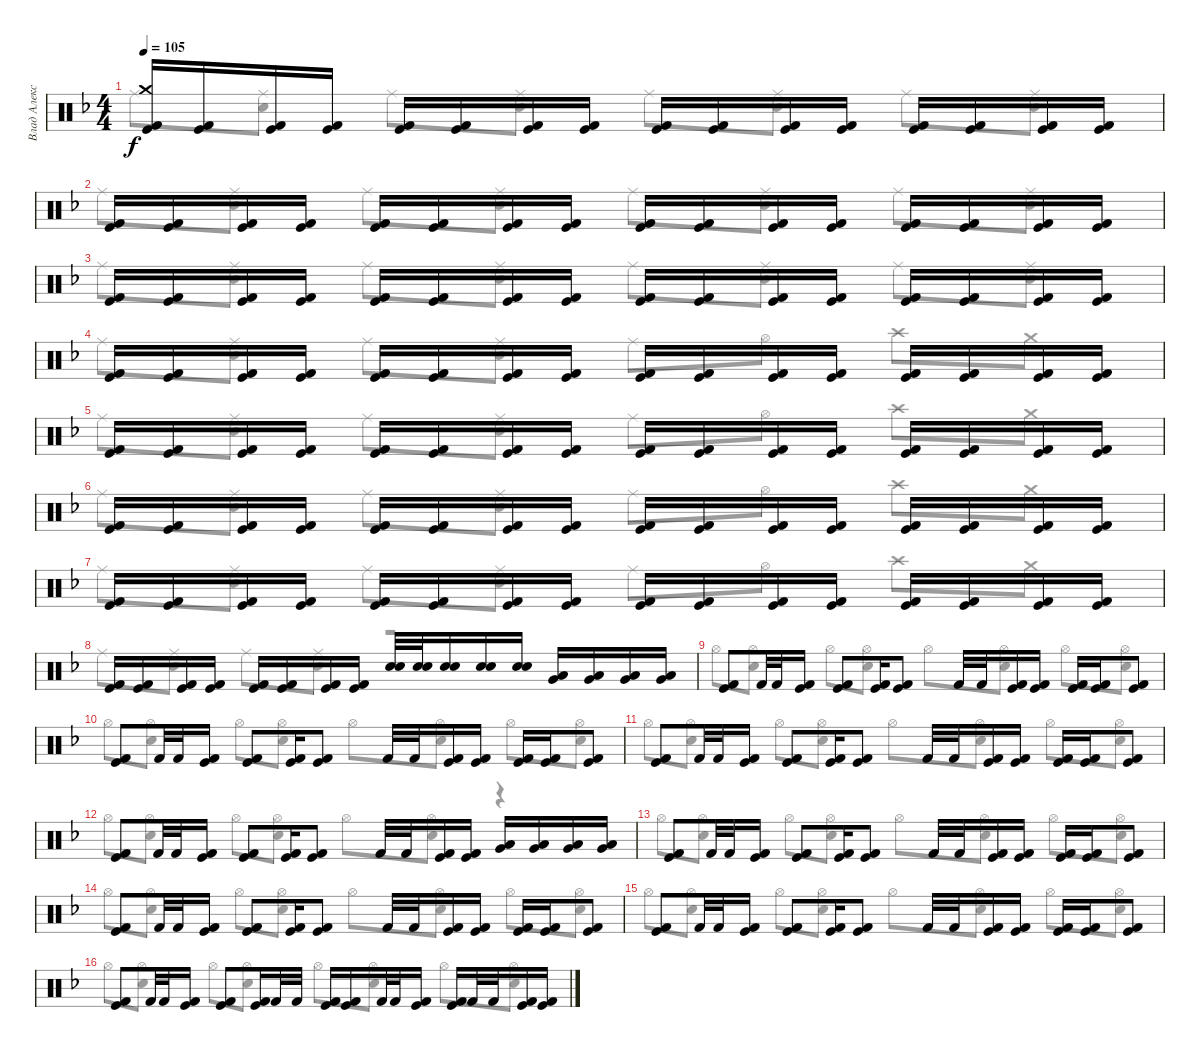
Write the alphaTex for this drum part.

\track ("Влад Алексеенко" "Влад Алекс") {instrument percussion}
\staff {score}
\articulation defaults
\voice
\ts (4 4)
\tempo 105
\clef neutral
\ks f
("Kick (hit) 2" "Kick (hit)" "Crash medium (hit)").16{dy f} ("Kick (hit) 2" "Kick (hit)").16 ("Kick (hit) 2" "Kick (hit)").16 ("Kick (hit) 2" "Kick (hit)").16 ("Kick (hit) 2" "Kick (hit)").16 ("Kick (hit) 2" "Kick (hit)").16 ("Kick (hit) 2" "Kick (hit)").16 ("Kick (hit) 2" "Kick (hit)").16 ("Kick (hit) 2" "Kick (hit)").16 ("Kick (hit) 2" "Kick (hit)").16 ("Kick (hit) 2" "Kick (hit)").16 ("Kick (hit) 2" "Kick (hit)").16 ("Kick (hit) 2" "Kick (hit)").16 ("Kick (hit) 2" "Kick (hit)").16 ("Kick (hit) 2" "Kick (hit)").16 ("Kick (hit) 2" "Kick (hit)").16 |
("Kick (hit) 2" "Kick (hit)").16 ("Kick (hit) 2" "Kick (hit)").16 ("Kick (hit) 2" "Kick (hit)").16 ("Kick (hit) 2" "Kick (hit)").16 ("Kick (hit) 2" "Kick (hit)").16 ("Kick (hit) 2" "Kick (hit)").16 ("Kick (hit) 2" "Kick (hit)").16 ("Kick (hit) 2" "Kick (hit)").16 ("Kick (hit) 2" "Kick (hit)").16 ("Kick (hit) 2" "Kick (hit)").16 ("Kick (hit) 2" "Kick (hit)").16 ("Kick (hit) 2" "Kick (hit)").16 ("Kick (hit) 2" "Kick (hit)").16 ("Kick (hit) 2" "Kick (hit)").16 ("Kick (hit) 2" "Kick (hit)").16 ("Kick (hit) 2" "Kick (hit)").16 |
("Kick (hit) 2" "Kick (hit)").16 ("Kick (hit) 2" "Kick (hit)").16 ("Kick (hit) 2" "Kick (hit)").16 ("Kick (hit) 2" "Kick (hit)").16 ("Kick (hit) 2" "Kick (hit)").16 ("Kick (hit) 2" "Kick (hit)").16 ("Kick (hit) 2" "Kick (hit)").16 ("Kick (hit) 2" "Kick (hit)").16 ("Kick (hit) 2" "Kick (hit)").16 ("Kick (hit) 2" "Kick (hit)").16 ("Kick (hit) 2" "Kick (hit)").16 ("Kick (hit) 2" "Kick (hit)").16 ("Kick (hit) 2" "Kick (hit)").16 ("Kick (hit) 2" "Kick (hit)").16 ("Kick (hit) 2" "Kick (hit)").16 ("Kick (hit) 2" "Kick (hit)").16 |
("Kick (hit) 2" "Kick (hit)").16 ("Kick (hit) 2" "Kick (hit)").16 ("Kick (hit) 2" "Kick (hit)").16 ("Kick (hit) 2" "Kick (hit)").16 ("Kick (hit) 2" "Kick (hit)").16 ("Kick (hit) 2" "Kick (hit)").16 ("Kick (hit) 2" "Kick (hit)").16 ("Kick (hit) 2" "Kick (hit)").16 ("Kick (hit) 2" "Kick (hit)").16 ("Kick (hit) 2" "Kick (hit)").16 ("Kick (hit) 2" "Kick (hit)").16 ("Kick (hit) 2" "Kick (hit)").16 ("Kick (hit) 2" "Kick (hit)").16 ("Kick (hit) 2" "Kick (hit)").16 ("Kick (hit) 2" "Kick (hit)").16 ("Kick (hit) 2" "Kick (hit)").16 |
("Kick (hit) 2" "Kick (hit)").16 ("Kick (hit) 2" "Kick (hit)").16 ("Kick (hit) 2" "Kick (hit)").16 ("Kick (hit) 2" "Kick (hit)").16 ("Kick (hit) 2" "Kick (hit)").16 ("Kick (hit) 2" "Kick (hit)").16 ("Kick (hit) 2" "Kick (hit)").16 ("Kick (hit) 2" "Kick (hit)").16 ("Kick (hit) 2" "Kick (hit)").16 ("Kick (hit) 2" "Kick (hit)").16 ("Kick (hit) 2" "Kick (hit)").16 ("Kick (hit) 2" "Kick (hit)").16 ("Kick (hit) 2" "Kick (hit)").16 ("Kick (hit) 2" "Kick (hit)").16 ("Kick (hit) 2" "Kick (hit)").16 ("Kick (hit) 2" "Kick (hit)").16 |
("Kick (hit) 2" "Kick (hit)").16 ("Kick (hit) 2" "Kick (hit)").16 ("Kick (hit) 2" "Kick (hit)").16 ("Kick (hit) 2" "Kick (hit)").16 ("Kick (hit) 2" "Kick (hit)").16 ("Kick (hit) 2" "Kick (hit)").16 ("Kick (hit) 2" "Kick (hit)").16 ("Kick (hit) 2" "Kick (hit)").16 ("Kick (hit) 2" "Kick (hit)").16 ("Kick (hit) 2" "Kick (hit)").16 ("Kick (hit) 2" "Kick (hit)").16 ("Kick (hit) 2" "Kick (hit)").16 ("Kick (hit) 2" "Kick (hit)").16 ("Kick (hit) 2" "Kick (hit)").16 ("Kick (hit) 2" "Kick (hit)").16 ("Kick (hit) 2" "Kick (hit)").16 |
("Kick (hit) 2" "Kick (hit)").16 ("Kick (hit) 2" "Kick (hit)").16 ("Kick (hit) 2" "Kick (hit)").16 ("Kick (hit) 2" "Kick (hit)").16 ("Kick (hit) 2" "Kick (hit)").16 ("Kick (hit) 2" "Kick (hit)").16 ("Kick (hit) 2" "Kick (hit)").16 ("Kick (hit) 2" "Kick (hit)").16 ("Kick (hit) 2" "Kick (hit)").16 ("Kick (hit) 2" "Kick (hit)").16 ("Kick (hit) 2" "Kick (hit)").16 ("Kick (hit) 2" "Kick (hit)").16 ("Kick (hit) 2" "Kick (hit)").16 ("Kick (hit) 2" "Kick (hit)").16 ("Kick (hit) 2" "Kick (hit)").16 ("Kick (hit) 2" "Kick (hit)").16 |
("Kick (hit) 2" "Kick (hit)").16 ("Kick (hit) 2" "Kick (hit)").16 ("Kick (hit) 2" "Kick (hit)").16 ("Kick (hit) 2" "Kick (hit)").16 ("Kick (hit) 2" "Kick (hit)").16 ("Kick (hit) 2" "Kick (hit)").16 ("Kick (hit) 2" "Kick (hit)").16 ("Kick (hit) 2" "Kick (hit)").16 ("Snare (hit) 2" "Snare (hit) 2").32 ("Snare (hit) 2" "Snare (hit) 2").32 ("Snare (hit) 2" "Snare (hit) 2").16 ("Snare (hit) 2" "Snare (hit) 2").16 ("Snare (hit) 2" "Snare (hit) 2").16 ("Low Tom (hit)" "Very Low Tom (hit)").16 ("Low Tom (hit)" "Very Low Tom (hit)").16 ("Very Low Tom (hit)" "Low Tom (hit)").16 ("Very Low Tom (hit)" "Low Tom (hit)").16 |
("Kick (hit) 2" "Kick (hit)").8 "Kick (hit) 2".32 "Kick (hit) 2".32 ("Kick (hit) 2" "Kick (hit)").16 ("Kick (hit) 2" "Kick (hit)").8 ("Kick (hit) 2" "Kick (hit)").16 ("Kick (hit) 2" "Kick (hit)").8 "Kick (hit) 2".32 "Kick (hit) 2".32 ("Kick (hit) 2" "Kick (hit)").16 ("Kick (hit) 2" "Kick (hit)").16 ("Kick (hit) 2" "Kick (hit)").16 ("Kick (hit) 2" "Kick (hit)").16 ("Kick (hit) 2" "Kick (hit)").8 |
("Kick (hit) 2" "Kick (hit)").8 "Kick (hit) 2".32 "Kick (hit) 2".32 ("Kick (hit) 2" "Kick (hit)").16 ("Kick (hit) 2" "Kick (hit)").8 ("Kick (hit) 2" "Kick (hit)").16 ("Kick (hit) 2" "Kick (hit)").8 "Kick (hit) 2".32 "Kick (hit) 2".32 ("Kick (hit) 2" "Kick (hit)").16 ("Kick (hit) 2" "Kick (hit)").16 ("Kick (hit) 2" "Kick (hit)").16 ("Kick (hit) 2" "Kick (hit)").16 ("Kick (hit) 2" "Kick (hit)").8 |
("Kick (hit) 2" "Kick (hit)").8 "Kick (hit) 2".32 "Kick (hit) 2".32 ("Kick (hit) 2" "Kick (hit)").16 ("Kick (hit) 2" "Kick (hit)").8 ("Kick (hit) 2" "Kick (hit)").16 ("Kick (hit) 2" "Kick (hit)").8 "Kick (hit) 2".32 "Kick (hit) 2".32 ("Kick (hit) 2" "Kick (hit)").16 ("Kick (hit) 2" "Kick (hit)").16 ("Kick (hit) 2" "Kick (hit)").16 ("Kick (hit) 2" "Kick (hit)").16 ("Kick (hit) 2" "Kick (hit)").8 |
("Kick (hit) 2" "Kick (hit)").8 "Kick (hit) 2".32 "Kick (hit) 2".32 ("Kick (hit) 2" "Kick (hit)").16 ("Kick (hit) 2" "Kick (hit)").8 ("Kick (hit) 2" "Kick (hit)").16 ("Kick (hit) 2" "Kick (hit)").8 "Kick (hit) 2".32 "Kick (hit) 2".32 ("Kick (hit) 2" "Kick (hit)").16 ("Kick (hit) 2" "Kick (hit)").16 ("Low Tom (hit)" "Very Low Tom (hit)").16 ("Low Tom (hit)" "Very Low Tom (hit)").16 ("Very Low Tom (hit)" "Low Tom (hit)").16 ("Low Floor Tom (hit)" "Very Low Tom (hit)").16 |
("Kick (hit) 2" "Kick (hit)").8 "Kick (hit) 2".32 "Kick (hit) 2".32 ("Kick (hit) 2" "Kick (hit)").16 ("Kick (hit) 2" "Kick (hit)").8 ("Kick (hit) 2" "Kick (hit)").16 ("Kick (hit) 2" "Kick (hit)").8 "Kick (hit) 2".32 "Kick (hit) 2".32 ("Kick (hit) 2" "Kick (hit)").16 ("Kick (hit) 2" "Kick (hit)").16 ("Kick (hit) 2" "Kick (hit)").16 ("Kick (hit) 2" "Kick (hit)").16 ("Kick (hit) 2" "Kick (hit)").8 |
("Kick (hit) 2" "Kick (hit)").8 "Kick (hit) 2".32 "Kick (hit) 2".32 ("Kick (hit) 2" "Kick (hit)").16 ("Kick (hit) 2" "Kick (hit)").8 ("Kick (hit) 2" "Kick (hit)").16 ("Kick (hit) 2" "Kick (hit)").8 "Kick (hit) 2".32 "Kick (hit) 2".32 ("Kick (hit) 2" "Kick (hit)").16 ("Kick (hit) 2" "Kick (hit)").16 ("Kick (hit) 2" "Kick (hit)").16 ("Kick (hit) 2" "Kick (hit)").16 ("Kick (hit) 2" "Kick (hit)").8 |
("Kick (hit) 2" "Kick (hit)").8 "Kick (hit) 2".32 "Kick (hit) 2".32 ("Kick (hit) 2" "Kick (hit)").16 ("Kick (hit) 2" "Kick (hit)").8 ("Kick (hit) 2" "Kick (hit)").16 ("Kick (hit) 2" "Kick (hit)").8 "Kick (hit) 2".32 "Kick (hit) 2".32 ("Kick (hit) 2" "Kick (hit)").16 ("Kick (hit) 2" "Kick (hit)").16 ("Kick (hit) 2" "Kick (hit)").16 ("Kick (hit) 2" "Kick (hit)").16 ("Kick (hit) 2" "Kick (hit)").8 |
("Kick (hit) 2" "Kick (hit)").8 "Kick (hit) 2".32 "Kick (hit) 2".32 ("Kick (hit) 2" "Kick (hit)").16 ("Kick (hit) 2" "Kick (hit)").8 ("Kick (hit) 2" "Kick (hit)").16 "Kick (hit) 2".32 "Kick (hit) 2".32 ("Kick (hit) 2" "Kick (hit)").16 ("Kick (hit) 2" "Kick (hit)").16 "Kick (hit) 2".32 "Kick (hit) 2".32 ("Kick (hit) 2" "Kick (hit)").16 ("Kick (hit) 2" "Kick (hit)").16 "Kick (hit) 2".32 "Kick (hit) 2".32 ("Kick (hit) 2" "Kick (hit)").16 ("Kick (hit) 2" "Kick (hit)").16
\voice
\clef neutral
\ottava regular
\simile none
\ks f "Ride (middle)".8{dy f}
("Ride (middle)" "Snare (hit) 2").8 "Ride (middle)".8 ("Ride (middle)" "Snare (hit) 2").8 "Ride (middle)".8 ("Ride (middle)" "Snare (hit) 2").8 "Ride (middle)".8 ("Ride (middle)" "Snare (hit) 2").8 |
"Ride (middle)".8 ("Ride (middle)" "Snare (hit) 2").8 "Ride (middle)".8 ("Ride (middle)" "Snare (hit) 2").8 "Ride (middle)".8 ("Ride (middle)" "Snare (hit) 2").8 "Ride (middle)".8 ("Ride (middle)" "Snare (hit) 2").8 |
"Ride (middle)".8 ("Ride (middle)" "Snare (hit) 2").8 "Ride (middle)".8 ("Ride (middle)" "Snare (hit) 2").8 "Ride (middle)".8 ("Ride (middle)" "Snare (hit) 2").8 "Ride (middle)".8 ("Ride (middle)" "Snare (hit) 2").8 |
"Ride (middle)".8 ("Ride (middle)" "Snare (hit) 2").8 "Ride (middle)".8 ("Ride (middle)" "Snare (hit) 2").8 "Ride (middle)".8 "Hi-Hat (open)".8 "Crash high (hit)".8 "Crash medium (hit)".8 |
"Ride (middle)".8 ("Ride (middle)" "Snare (hit) 2").8 "Ride (middle)".8 ("Ride (middle)" "Snare (hit) 2").8 "Ride (middle)".8 "Hi-Hat (open)".8 "Crash high (hit)".8 "Crash medium (hit)".8 |
"Ride (middle)".8 ("Ride (middle)" "Snare (hit) 2").8 "Ride (middle)".8 ("Ride (middle)" "Snare (hit) 2").8 "Ride (middle)".8 "Hi-Hat (open)".8 "Crash high (hit)".8 "Crash medium (hit)".8 |
"Ride (middle)".8 ("Ride (middle)" "Snare (hit) 2").8 "Ride (middle)".8 ("Ride (middle)" "Snare (hit) 2").8 "Ride (middle)".8 "Hi-Hat (open)".8 "Crash high (hit)".8 "Crash medium (hit)".8 |
"Ride (middle)".8 ("Ride (middle)" "Snare (hit) 2").8 "Ride (middle)".8 ("Ride (middle)" "Snare (hit) 2").8 r.2 |
"Hi-Hat (open)".8 ("Hi-Hat (open)" "Snare (hit) 2").8 "Hi-Hat (open)".8 ("Hi-Hat (open)" "Snare (hit) 2").8 "Hi-Hat (open)".8 ("Hi-Hat (open)" "Snare (hit) 2").8 "Hi-Hat (open)".8 ("Hi-Hat (open)" "Snare (hit) 2").8 |
"Hi-Hat (open)".8 ("Hi-Hat (open)" "Snare (hit) 2").8 "Hi-Hat (open)".8 ("Hi-Hat (open)" "Snare (hit) 2").8 "Hi-Hat (open)".8 ("Hi-Hat (open)" "Snare (hit) 2").8 "Hi-Hat (open)".8 ("Hi-Hat (open)" "Snare (hit) 2").8 |
"Hi-Hat (open)".8 ("Hi-Hat (open)" "Snare (hit) 2").8 "Hi-Hat (open)".8 ("Hi-Hat (open)" "Snare (hit) 2").8 "Hi-Hat (open)".8 ("Hi-Hat (open)" "Snare (hit) 2").8 "Hi-Hat (open)".8 ("Hi-Hat (open)" "Snare (hit) 2").8 |
"Hi-Hat (open)".8 ("Hi-Hat (open)" "Snare (hit) 2").8 "Hi-Hat (open)".8 ("Hi-Hat (open)" "Snare (hit) 2").8 "Hi-Hat (open)".8 ("Hi-Hat (open)" "Snare (hit) 2").8 r.4 |
"Hi-Hat (open)".8 ("Hi-Hat (open)" "Snare (hit) 2").8 "Hi-Hat (open)".8 ("Hi-Hat (open)" "Snare (hit) 2").8 "Hi-Hat (open)".8 ("Hi-Hat (open)" "Snare (hit) 2").8 "Hi-Hat (open)".8 ("Hi-Hat (open)" "Snare (hit) 2").8 |
"Hi-Hat (open)".8 ("Hi-Hat (open)" "Snare (hit) 2").8 "Hi-Hat (open)".8 ("Hi-Hat (open)" "Snare (hit) 2").8 "Hi-Hat (open)".8 ("Hi-Hat (open)" "Snare (hit) 2").8 "Hi-Hat (open)".8 ("Hi-Hat (open)" "Snare (hit) 2").8 |
"Hi-Hat (open)".8 ("Hi-Hat (open)" "Snare (hit) 2").8 "Hi-Hat (open)".8 ("Hi-Hat (open)" "Snare (hit) 2").8 "Hi-Hat (open)".8 ("Hi-Hat (open)" "Snare (hit) 2").8 "Hi-Hat (open)".8 ("Hi-Hat (open)" "Snare (hit) 2").8 |
"Hi-Hat (open)".8 ("Hi-Hat (open)" "Snare (hit) 2").8 "Hi-Hat (open)".8 ("Hi-Hat (open)" "Snare (hit) 2").8 "Hi-Hat (open)".8 ("Hi-Hat (open)" "Snare (hit) 2").8 "Hi-Hat (open)".8 ("Hi-Hat (open)" "Snare (hit) 2").8
